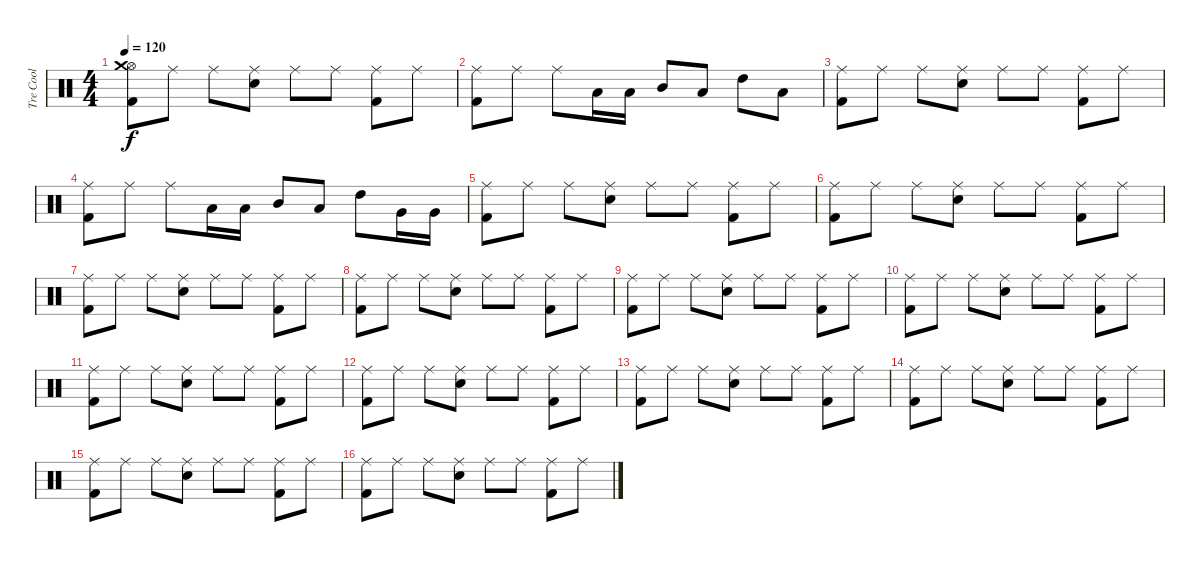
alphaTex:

\track ("Tre Cool" "Tre Cool") {instrument percussion}
\staff {score}
\articulation defaults
\ts (4 4)
\tempo 120
\clef neutral
\ks c
("Hi-Hat (open)" "Crash medium (hit)" "Kick (hit) 2").8{dy f} "Ride (middle)".8 "Ride (middle)".8 ("Ride (middle)" "Snare (hit) 2").8 "Ride (middle)".8 "Ride (middle)".8 ("Ride (middle)" "Kick (hit) 2").8 "Ride (middle)".8 |
("Ride (middle)" "Kick (hit) 2").8 "Ride (middle)".8 "Ride (middle)".8 "Low Tom (hit)".16 "Low Tom (hit)".16 "Mid Tom (hit)".8 "Low Tom (hit)".8 "High Tom (hit)".8 "Low Floor Tom (hit)".8 |
("Ride (middle)" "Kick (hit) 2").8 "Ride (middle)".8 "Ride (middle)".8 ("Ride (middle)" "Snare (hit) 2").8 "Ride (middle)".8 "Ride (middle)".8 ("Ride (middle)" "Kick (hit) 2").8 "Ride (middle)".8 |
("Ride (middle)" "Kick (hit) 2").8 "Ride (middle)".8 "Ride (middle)".8 "Low Tom (hit)".16 "Low Tom (hit)".16 "Mid Tom (hit)".8 "Low Tom (hit)".8 "High Tom (hit)".8 "Very Low Tom (hit)".16 "Very Low Tom (hit)".16 |
("Ride (middle)" "Kick (hit) 2").8 "Ride (middle)".8 "Ride (middle)".8 ("Ride (middle)" "Snare (hit) 2").8 "Ride (middle)".8 "Ride (middle)".8 ("Ride (middle)" "Kick (hit) 2").8 "Ride (middle)".8 |
("Ride (middle)" "Kick (hit) 2").8 "Ride (middle)".8 "Ride (middle)".8 ("Ride (middle)" "Snare (hit) 2").8 "Ride (middle)".8 "Ride (middle)".8 ("Ride (middle)" "Kick (hit) 2").8 "Ride (middle)".8 |
("Ride (middle)" "Kick (hit) 2").8 "Ride (middle)".8 "Ride (middle)".8 ("Ride (middle)" "Snare (hit) 2").8 "Ride (middle)".8 "Ride (middle)".8 ("Ride (middle)" "Kick (hit) 2").8 "Ride (middle)".8 |
("Ride (middle)" "Kick (hit) 2").8 "Ride (middle)".8 "Ride (middle)".8 ("Ride (middle)" "Snare (hit) 2").8 "Ride (middle)".8 "Ride (middle)".8 ("Ride (middle)" "Kick (hit) 2").8 "Ride (middle)".8 |
("Ride (middle)" "Kick (hit) 2").8 "Ride (middle)".8 "Ride (middle)".8 ("Ride (middle)" "Snare (hit) 2").8 "Ride (middle)".8 "Ride (middle)".8 ("Ride (middle)" "Kick (hit) 2").8 "Ride (middle)".8 |
("Ride (middle)" "Kick (hit) 2").8 "Ride (middle)".8 "Ride (middle)".8 ("Ride (middle)" "Snare (hit) 2").8 "Ride (middle)".8 "Ride (middle)".8 ("Ride (middle)" "Kick (hit) 2").8 "Ride (middle)".8 |
("Ride (middle)" "Kick (hit) 2").8 "Ride (middle)".8 "Ride (middle)".8 ("Ride (middle)" "Snare (hit) 2").8 "Ride (middle)".8 "Ride (middle)".8 ("Ride (middle)" "Kick (hit) 2").8 "Ride (middle)".8 |
("Ride (middle)" "Kick (hit) 2").8 "Ride (middle)".8 "Ride (middle)".8 ("Ride (middle)" "Snare (hit) 2").8 "Ride (middle)".8 "Ride (middle)".8 ("Ride (middle)" "Kick (hit) 2").8 "Ride (middle)".8 |
("Ride (middle)" "Kick (hit) 2").8 "Ride (middle)".8 "Ride (middle)".8 ("Ride (middle)" "Snare (hit) 2").8 "Ride (middle)".8 "Ride (middle)".8 ("Ride (middle)" "Kick (hit) 2").8 "Ride (middle)".8 |
("Ride (middle)" "Kick (hit) 2").8 "Ride (middle)".8 "Ride (middle)".8 ("Ride (middle)" "Snare (hit) 2").8 "Ride (middle)".8 "Ride (middle)".8 ("Ride (middle)" "Kick (hit) 2").8 "Ride (middle)".8 |
("Ride (middle)" "Kick (hit) 2").8 "Ride (middle)".8 "Ride (middle)".8 ("Ride (middle)" "Snare (hit) 2").8 "Ride (middle)".8 "Ride (middle)".8 ("Ride (middle)" "Kick (hit) 2").8 "Ride (middle)".8 |
("Ride (middle)" "Kick (hit) 2").8 "Ride (middle)".8 "Ride (middle)".8 ("Ride (middle)" "Snare (hit) 2").8 "Ride (middle)".8 "Ride (middle)".8 ("Ride (middle)" "Kick (hit) 2").8 "Ride (middle)".8
